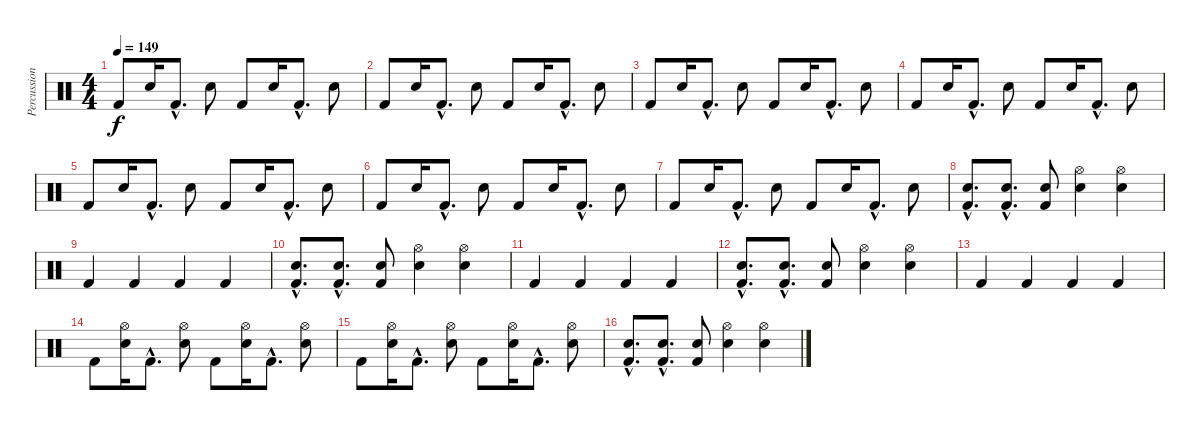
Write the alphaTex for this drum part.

\track ("Percussion" "Percussion") {instrument percussion}
\staff {score}
\articulation defaults
\ts (4 4)
\tempo 149
\clef neutral
\ks c "Kick (hit) 2".8{dy f} "Snare (hit) 2".16 "Kick (hit) 2"{hac}.8{d} "Snare (hit) 2".8 "Kick (hit) 2".8 "Snare (hit) 2".16 "Kick (hit) 2"{hac}.8{d} "Snare (hit) 2".8
|
"Kick (hit) 2".8 "Snare (hit) 2".16 "Kick (hit) 2"{hac}.8{d} "Snare (hit) 2".8 "Kick (hit) 2".8 "Snare (hit) 2".16 "Kick (hit) 2"{hac}.8{d} "Snare (hit) 2".8 |
"Kick (hit) 2".8 "Snare (hit) 2".16 "Kick (hit) 2"{hac}.8{d} "Snare (hit) 2".8 "Kick (hit) 2".8 "Snare (hit) 2".16 "Kick (hit) 2"{hac}.8{d} "Snare (hit) 2".8 |
"Kick (hit) 2".8 "Snare (hit) 2".16 "Kick (hit) 2"{hac}.8{d} "Snare (hit) 2".8 "Kick (hit) 2".8 "Snare (hit) 2".16 "Kick (hit) 2"{hac}.8{d} "Snare (hit) 2".8 |
"Kick (hit) 2".8 "Snare (hit) 2".16 "Kick (hit) 2"{hac}.8{d} "Snare (hit) 2".8 "Kick (hit) 2".8 "Snare (hit) 2".16 "Kick (hit) 2"{hac}.8{d} "Snare (hit) 2".8 |
"Kick (hit) 2".8 "Snare (hit) 2".16 "Kick (hit) 2"{hac}.8{d} "Snare (hit) 2".8 "Kick (hit) 2".8 "Snare (hit) 2".16 "Kick (hit) 2"{hac}.8{d} "Snare (hit) 2".8 |
"Kick (hit) 2".8 "Snare (hit) 2".16 "Kick (hit) 2"{hac}.8{d} "Snare (hit) 2".8 "Kick (hit) 2".8 "Snare (hit) 2".16 "Kick (hit) 2"{hac}.8{d} "Snare (hit) 2".8 |
("Snare (hit) 2"{hac} "Kick (hit) 2"{hac}).8{d} ("Snare (hit) 2"{hac} "Kick (hit) 2"{hac}).8{d} ("Snare (hit) 2" "Kick (hit) 2").8 ("Hi-Hat (open)" "Snare (hit) 2").4 ("Hi-Hat (open)" "Snare (hit) 2").4 |
"Kick (hit) 2".4 "Kick (hit) 2".4 "Kick (hit) 2".4 "Kick (hit) 2".4 |
("Snare (hit) 2"{hac} "Kick (hit) 2"{hac}).8{d} ("Snare (hit) 2"{hac} "Kick (hit) 2"{hac}).8{d} ("Snare (hit) 2" "Kick (hit) 2").8 ("Hi-Hat (open)" "Snare (hit) 2").4 ("Hi-Hat (open)" "Snare (hit) 2").4 |
"Kick (hit) 2".4 "Kick (hit) 2".4 "Kick (hit) 2".4 "Kick (hit) 2".4 |
("Snare (hit) 2"{hac} "Kick (hit) 2"{hac}).8{d} ("Snare (hit) 2"{hac} "Kick (hit) 2"{hac}).8{d} ("Snare (hit) 2" "Kick (hit) 2").8 ("Hi-Hat (open)" "Snare (hit) 2").4 ("Hi-Hat (open)" "Snare (hit) 2").4 |
"Kick (hit) 2".4 "Kick (hit) 2".4 "Kick (hit) 2".4 "Kick (hit) 2".4 |
"Kick (hit) 2".8 ("Snare (hit) 2" "Hi-Hat (open)").16 "Kick (hit) 2"{hac}.8{d} ("Snare (hit) 2" "Hi-Hat (open)").8 "Kick (hit) 2".8 ("Snare (hit) 2" "Hi-Hat (open)").16 "Kick (hit) 2"{hac}.8{d} ("Snare (hit) 2" "Hi-Hat (open)").8 |
"Kick (hit) 2".8 ("Snare (hit) 2" "Hi-Hat (open)").16 "Kick (hit) 2"{hac}.8{d} ("Snare (hit) 2" "Hi-Hat (open)").8 "Kick (hit) 2".8 ("Snare (hit) 2" "Hi-Hat (open)").16 "Kick (hit) 2"{hac}.8{d} ("Snare (hit) 2" "Hi-Hat (open)").8 |
("Snare (hit) 2"{hac} "Kick (hit) 2"{hac}).8{d} ("Snare (hit) 2"{hac} "Kick (hit) 2"{hac}).8{d} ("Snare (hit) 2" "Kick (hit) 2").8 ("Hi-Hat (open)" "Snare (hit) 2").4 ("Hi-Hat (open)" "Snare (hit) 2").4
